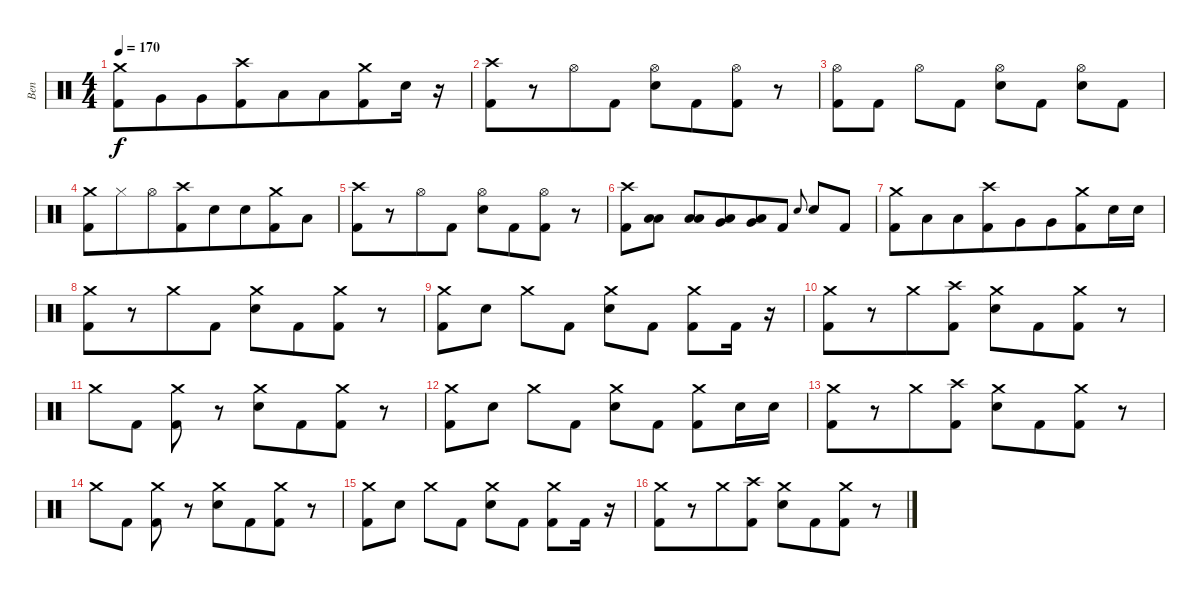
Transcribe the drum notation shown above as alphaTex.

\track ("Ben" "Ben") {instrument percussion}
\staff {score}
\articulation defaults
\ts (4 4)
\tempo 170
\clef neutral
\ks c
("Crash medium (hit)" "Kick (hit) 2").8{dy f} "Very Low Tom (hit)".8{beam merge} "Very Low Tom (hit)".8{beam merge} ("Crash high (hit)" "Kick (hit) 2").8{beam merge} "Low Floor Tom (hit)".8 "Low Floor Tom (hit)".8{beam merge} ("Kick (hit) 2" "Crash medium (hit)").8 "Electric Snare (hit)".16 r.16 |
("Crash high (hit)" "Kick (hit) 2").8{beam merge} r.8 "Hi-Hat (open)".8 "Kick (hit) 2".8 ("Hi-Hat (open)" "Electric Snare (hit)").8{beam merge} "Kick (hit) 2".8{beam merge} ("Hi-Hat (open)" "Kick (hit) 2").8{beam merge} r.8 |
("Hi-Hat (open)" "Kick (hit) 2").8 "Kick (hit) 2".8 "Hi-Hat (open)".8{beam merge} "Kick (hit) 2".8 ("Hi-Hat (open)" "Electric Snare (hit)").8 "Kick (hit) 2".8 ("Hi-Hat (open)" "Electric Snare (hit)").8 "Kick (hit) 2".8 |
("Crash medium (hit)" "Kick (hit) 2").8 "Hi-Hat (closed)".8{beam merge} "Hi-Hat (open)".8{beam merge} ("Crash high (hit)" "Kick (hit) 2").8{beam merge} "Electric Snare (hit)".8 "Electric Snare (hit)".8{beam merge} ("Kick (hit) 2" "Crash medium (hit)").8 "Low Floor Tom (hit)".8 |
("Crash high (hit)" "Kick (hit) 2").8{beam merge} r.8 "Hi-Hat (open)".8 "Kick (hit) 2".8 ("Hi-Hat (open)" "Electric Snare (hit)").8{beam merge} "Kick (hit) 2".8{beam merge} ("Hi-Hat (open)" "Kick (hit) 2").8{beam merge} r.8 |
("Kick (hit) 2" "Crash high (hit)").8{beam merge} ("Low Tom (hit)" "Low Floor Tom (hit)").8 ("Low Tom (hit)" "Low Floor Tom (hit)").8{beam merge} ("Very Low Tom (hit)" "Low Floor Tom (hit)").8{beam merge} ("Very Low Tom (hit)" "Low Floor Tom (hit)").8 "Kick (hit) 2".8 "Electric Snare (hit)".8{gr onbeat} "Electric Snare (hit)".8{beam merge} "Kick (hit) 2".8 |
("Crash medium (hit)" "Kick (hit) 2").8 "Low Floor Tom (hit)".8{beam merge} "Low Floor Tom (hit)".8{beam merge} ("Crash high (hit)" "Kick (hit) 2").8{beam merge} "Very Low Tom (hit)".8 "Very Low Tom (hit)".8{beam merge} ("Kick (hit) 2" "Crash medium (hit)").8 "Electric Snare (hit)".16{beam merge} "Electric Snare (hit)".16 |
("Crash medium (hit)" "Kick (hit) 2").8{beam merge} r.8 "Crash medium (hit)".8 "Kick (hit) 2".8 ("Crash medium (hit)" "Electric Snare (hit)").8{beam merge} "Kick (hit) 2".8{beam merge} ("Crash medium (hit)" "Kick (hit) 2").8{beam merge} r.8 |
("Crash medium (hit)" "Kick (hit) 2").8 "Electric Snare (hit)".8 "Crash medium (hit)".8{beam merge} "Kick (hit) 2".8 ("Crash medium (hit)" "Electric Snare (hit)").8 "Kick (hit) 2".8 ("Crash medium (hit)" "Kick (hit) 2").8 "Kick (hit) 2".16{beam merge} r.16 |
("Crash medium (hit)" "Kick (hit) 2").8{beam merge} r.8 "Crash medium (hit)".8 ("Crash high (hit)" "Kick (hit) 2").8 ("Crash medium (hit)" "Electric Snare (hit)").8{beam merge} "Kick (hit) 2".8{beam merge} ("Crash medium (hit)" "Kick (hit) 2").8{beam merge} r.8 |
"Crash medium (hit)".8{beam merge} "Kick (hit) 2".8 ("Crash medium (hit)" "Kick (hit) 2").8 r.8 ("Crash medium (hit)" "Electric Snare (hit)").8{beam merge} "Kick (hit) 2".8{beam merge} ("Crash medium (hit)" "Kick (hit) 2").8{beam merge} r.8 |
("Crash medium (hit)" "Kick (hit) 2").8 "Electric Snare (hit)".8 "Crash medium (hit)".8{beam merge} "Kick (hit) 2".8 ("Crash medium (hit)" "Electric Snare (hit)").8 "Kick (hit) 2".8 ("Crash medium (hit)" "Kick (hit) 2").8 "Electric Snare (hit)".16{beam merge} "Electric Snare (hit)".16 |
("Crash medium (hit)" "Kick (hit) 2").8{beam merge} r.8 "Crash medium (hit)".8 ("Crash high (hit)" "Kick (hit) 2").8 ("Crash medium (hit)" "Electric Snare (hit)").8{beam merge} "Kick (hit) 2".8{beam merge} ("Crash medium (hit)" "Kick (hit) 2").8{beam merge} r.8 |
"Crash medium (hit)".8{beam merge} "Kick (hit) 2".8 ("Crash medium (hit)" "Kick (hit) 2").8 r.8 ("Crash medium (hit)" "Electric Snare (hit)").8{beam merge} "Kick (hit) 2".8{beam merge} ("Crash medium (hit)" "Kick (hit) 2").8{beam merge} r.8 |
("Crash medium (hit)" "Kick (hit) 2").8 "Electric Snare (hit)".8 "Crash medium (hit)".8{beam merge} "Kick (hit) 2".8 ("Crash medium (hit)" "Electric Snare (hit)").8 "Kick (hit) 2".8 ("Crash medium (hit)" "Kick (hit) 2").8 "Kick (hit) 2".16{beam merge} r.16 |
("Crash medium (hit)" "Kick (hit) 2").8{beam merge} r.8 "Crash medium (hit)".8 ("Crash high (hit)" "Kick (hit) 2").8 ("Crash medium (hit)" "Electric Snare (hit)").8{beam merge} "Kick (hit) 2".8{beam merge} ("Crash medium (hit)" "Kick (hit) 2").8{beam merge} r.8
